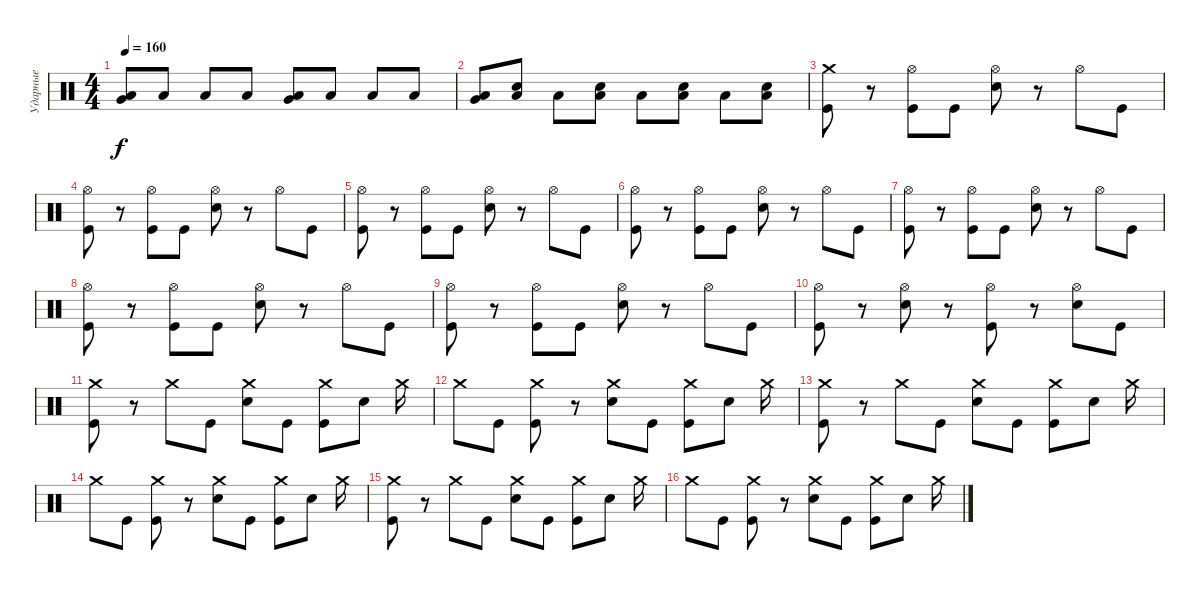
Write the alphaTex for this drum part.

\track ("Ударные" "Ударные") {instrument percussion}
\staff {score}
\articulation defaults
\ts (4 4)
\tempo 160
\clef neutral
\ks c
("Very Low Tom (hit)" "Low Floor Tom (hit)").8{dy f} "Low Floor Tom (hit)".8 "Low Floor Tom (hit)".8 "Low Floor Tom (hit)".8 ("Very Low Tom (hit)" "Low Floor Tom (hit)").8 "Low Floor Tom (hit)".8 "Low Floor Tom (hit)".8 "Low Floor Tom (hit)".8 |
("Very Low Tom (hit)" "Low Floor Tom (hit)").8 ("Electric Snare (hit)" "Low Floor Tom (hit)").8 "Low Floor Tom (hit)".8 ("Electric Snare (hit)" "Low Floor Tom (hit)").8 "Low Floor Tom (hit)".8 ("Electric Snare (hit)" "Low Floor Tom (hit)").8 "Low Floor Tom (hit)".8 ("Electric Snare (hit)" "Low Floor Tom (hit)").8 |
("Crash medium (hit)" "Kick (hit)").8 r.8 ("Hi-Hat (open)" "Kick (hit)").8 "Kick (hit)".8 ("Hi-Hat (open)" "Electric Snare (hit)").8 r.8 "Hi-Hat (open)".8 "Kick (hit)".8 |
("Hi-Hat (open)" "Kick (hit)").8 r.8 ("Hi-Hat (open)" "Kick (hit)").8 "Kick (hit)".8 ("Hi-Hat (open)" "Electric Snare (hit)").8 r.8 "Hi-Hat (open)".8 "Kick (hit)".8 |
("Hi-Hat (open)" "Kick (hit)").8 r.8 ("Hi-Hat (open)" "Kick (hit)").8 "Kick (hit)".8 ("Hi-Hat (open)" "Electric Snare (hit)").8 r.8 "Hi-Hat (open)".8 "Kick (hit)".8 |
("Hi-Hat (open)" "Kick (hit)").8 r.8 ("Hi-Hat (open)" "Kick (hit)").8 "Kick (hit)".8 ("Hi-Hat (open)" "Electric Snare (hit)").8 r.8 "Hi-Hat (open)".8 "Kick (hit)".8 |
("Hi-Hat (open)" "Kick (hit)").8 r.8 ("Hi-Hat (open)" "Kick (hit)").8 "Kick (hit)".8 ("Hi-Hat (open)" "Electric Snare (hit)").8 r.8 "Hi-Hat (open)".8 "Kick (hit)".8 |
("Hi-Hat (open)" "Kick (hit)").8 r.8 ("Hi-Hat (open)" "Kick (hit)").8 "Kick (hit)".8 ("Hi-Hat (open)" "Electric Snare (hit)").8 r.8 "Hi-Hat (open)".8 "Kick (hit)".8 |
("Hi-Hat (open)" "Kick (hit)").8 r.8 ("Hi-Hat (open)" "Kick (hit)").8 "Kick (hit)".8 ("Hi-Hat (open)" "Electric Snare (hit)").8 r.8 "Hi-Hat (open)".8 "Kick (hit)".8 |
("Hi-Hat (open)" "Kick (hit)").8 r.8 ("Hi-Hat (open)" "Electric Snare (hit)").8 r.8 ("Hi-Hat (open)" "Kick (hit)").8 r.8 ("Hi-Hat (open)" "Electric Snare (hit)").8 "Kick (hit)".8 |
("Crash medium (hit)" "Kick (hit)").8 r.8 "Crash medium (hit)".8 "Kick (hit)".8 ("Crash medium (hit)" "Electric Snare (hit)").8 "Kick (hit)".8 ("Crash medium (hit)" "Kick (hit)").8 "Electric Snare (hit)".8 "Crash medium (hit)".16 |
"Crash medium (hit)".8 "Kick (hit)".8 ("Crash medium (hit)" "Kick (hit)").8 r.8 ("Crash medium (hit)" "Electric Snare (hit)").8 "Kick (hit)".8 ("Crash medium (hit)" "Kick (hit)").8 "Electric Snare (hit)".8 "Crash medium (hit)".16 |
("Crash medium (hit)" "Kick (hit)").8 r.8 "Crash medium (hit)".8 "Kick (hit)".8 ("Crash medium (hit)" "Electric Snare (hit)").8 "Kick (hit)".8 ("Crash medium (hit)" "Kick (hit)").8 "Electric Snare (hit)".8 "Crash medium (hit)".16 |
"Crash medium (hit)".8 "Kick (hit)".8 ("Crash medium (hit)" "Kick (hit)").8 r.8 ("Crash medium (hit)" "Electric Snare (hit)").8 "Kick (hit)".8 ("Crash medium (hit)" "Kick (hit)").8 "Electric Snare (hit)".8 "Crash medium (hit)".16 |
("Crash medium (hit)" "Kick (hit)").8 r.8 "Crash medium (hit)".8 "Kick (hit)".8 ("Crash medium (hit)" "Electric Snare (hit)").8 "Kick (hit)".8 ("Crash medium (hit)" "Kick (hit)").8 "Electric Snare (hit)".8 "Crash medium (hit)".16 |
"Crash medium (hit)".8 "Kick (hit)".8 ("Crash medium (hit)" "Kick (hit)").8 r.8 ("Crash medium (hit)" "Electric Snare (hit)").8 "Kick (hit)".8 ("Crash medium (hit)" "Kick (hit)").8 "Electric Snare (hit)".8 "Crash medium (hit)".16
